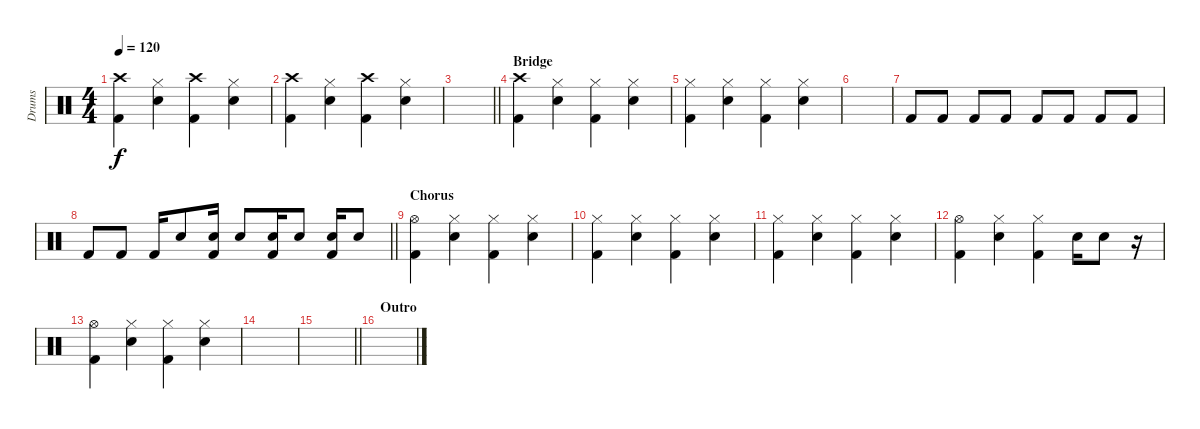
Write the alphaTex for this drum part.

\track ("Drums" "Drums") {instrument percussion}
\staff {score}
\articulation defaults
\ts (4 4)
\tempo 120
\clef neutral
\ks c
("Crash high (hit)" "Kick (hit) 2").4{dy f} ("Hi-Hat (closed)" "Snare (hit) 2").4 ("Crash high (hit)" "Kick (hit) 2").4 ("Hi-Hat (closed)" "Snare (hit) 2").4 |
("Crash high (hit)" "Kick (hit) 2").4 ("Hi-Hat (closed)" "Snare (hit) 2").4 ("Crash high (hit)" "Kick (hit) 2").4 ("Hi-Hat (closed)" "Snare (hit) 2").4 |
\barLineRight lightlight
|
\section ("" "Bridge")
("Crash high (hit)" "Kick (hit) 2").4 ("Hi-Hat (closed)" "Snare (hit) 2").4 ("Hi-Hat (closed)" "Kick (hit) 2").4 ("Hi-Hat (closed)" "Snare (hit) 2").4 |
("Hi-Hat (closed)" "Kick (hit) 2").4 ("Hi-Hat (closed)" "Snare (hit) 2").4 ("Hi-Hat (closed)" "Kick (hit) 2").4 ("Hi-Hat (closed)" "Snare (hit) 2").4 |
|
"Kick (hit) 2".8 "Kick (hit) 2".8 "Kick (hit) 2".8 "Kick (hit) 2".8 "Kick (hit) 2".8 "Kick (hit) 2".8 "Kick (hit) 2".8 "Kick (hit) 2".8 |
\barLineRight lightlight "Kick (hit) 2".8 "Kick (hit) 2".8 "Kick (hit) 2".16 "Snare (hit) 2".8
("Snare (hit) 2" "Kick (hit) 2").16 "Snare (hit) 2".8 ("Snare (hit) 2" "Kick (hit) 2").16 "Snare (hit) 2".8 ("Snare (hit) 2" "Kick (hit) 2").16 "Snare (hit) 2".8 |
\section ("" "Chorus")
("Hi-Hat (open)" "Kick (hit) 2").4 ("Hi-Hat (closed)" "Snare (hit) 2").4 ("Hi-Hat (closed)" "Kick (hit) 2").4 ("Hi-Hat (closed)" "Snare (hit) 2").4 |
("Hi-Hat (closed)" "Kick (hit) 2").4 ("Hi-Hat (closed)" "Snare (hit) 2").4 ("Hi-Hat (closed)" "Kick (hit) 2").4 ("Hi-Hat (closed)" "Snare (hit) 2").4 |
("Hi-Hat (closed)" "Kick (hit) 2").4 ("Hi-Hat (closed)" "Snare (hit) 2").4 ("Hi-Hat (closed)" "Kick (hit) 2").4 ("Hi-Hat (closed)" "Snare (hit) 2").4 |
("Hi-Hat (open)" "Kick (hit) 2").4 ("Hi-Hat (closed)" "Snare (hit) 2").4 ("Hi-Hat (closed)" "Kick (hit) 2").4 "Snare (hit) 2".16 "Snare (hit) 2".8 r.16 |
("Hi-Hat (open)" "Kick (hit) 2").4 ("Hi-Hat (closed)" "Snare (hit) 2").4 ("Hi-Hat (closed)" "Kick (hit) 2").4 ("Hi-Hat (closed)" "Snare (hit) 2").4 |
|
\barLineRight lightlight
|
\section ("" "Outro")
